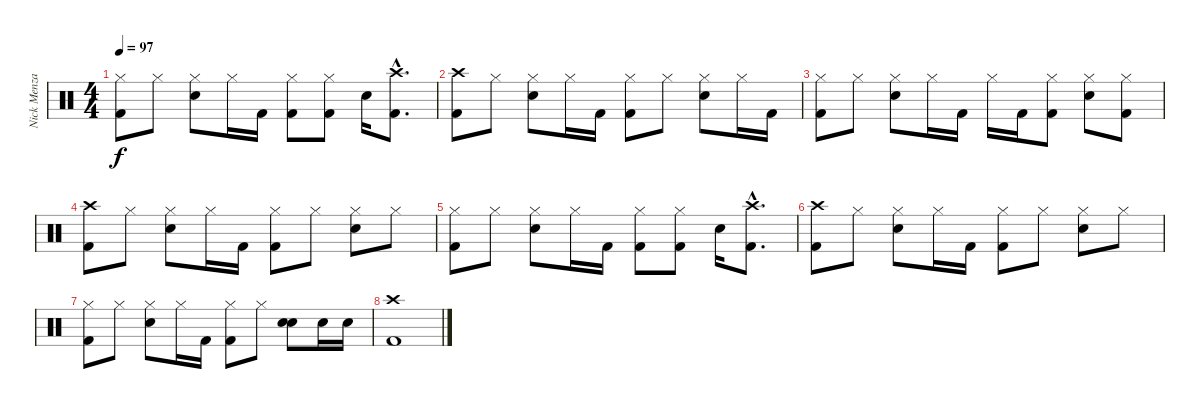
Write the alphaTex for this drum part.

\track ("Nick Menza" "Nick Menza") {instrument percussion}
\staff {score}
\articulation defaults
\ts (4 4)
\tempo 97
\clef neutral
\ks c
("Hi-Hat (closed)" "Kick (hit) 2").8{dy f} "Hi-Hat (closed)".8 ("Hi-Hat (closed)" "Electric Snare (hit)").8 "Hi-Hat (closed)".16 "Kick (hit) 2".16 ("Hi-Hat (closed)" "Kick (hit) 2").8 ("Hi-Hat (closed)" "Kick (hit) 2").8 "Electric Snare (hit)".16 ("Crash high (hit)"{hac} "Kick (hit) 2"{hac}).8{d} |
("Crash high (hit)" "Kick (hit) 2").8 "Hi-Hat (closed)".8 ("Hi-Hat (closed)" "Electric Snare (hit)").8 "Hi-Hat (closed)".16 "Kick (hit) 2".16 ("Hi-Hat (closed)" "Kick (hit) 2").8 "Hi-Hat (closed)".8 ("Hi-Hat (closed)" "Electric Snare (hit)").8 "Hi-Hat (closed)".16 "Kick (hit) 2".16 |
("Hi-Hat (closed)" "Kick (hit) 2").8 "Hi-Hat (closed)".8 ("Hi-Hat (closed)" "Electric Snare (hit)").8 "Hi-Hat (closed)".16 "Kick (hit) 2".16 "Hi-Hat (closed)".16 "Kick (hit) 2".16 ("Hi-Hat (closed)" "Kick (hit) 2").8 ("Hi-Hat (closed)" "Electric Snare (hit)").8 ("Hi-Hat (closed)" "Kick (hit) 2").8 |
("Crash high (hit)" "Kick (hit) 2").8 "Hi-Hat (closed)".8 ("Hi-Hat (closed)" "Electric Snare (hit)").8 "Hi-Hat (closed)".16 "Kick (hit) 2".16 ("Hi-Hat (closed)" "Kick (hit) 2").8 "Hi-Hat (closed)".8 ("Hi-Hat (closed)" "Electric Snare (hit)").8 "Hi-Hat (closed)".8 |
("Hi-Hat (closed)" "Kick (hit) 2").8 "Hi-Hat (closed)".8 ("Hi-Hat (closed)" "Electric Snare (hit)").8 "Hi-Hat (closed)".16 "Kick (hit) 2".16 ("Hi-Hat (closed)" "Kick (hit) 2").8 ("Hi-Hat (closed)" "Kick (hit) 2").8 "Electric Snare (hit)".16 ("Crash high (hit)"{hac} "Kick (hit) 2"{hac}).8{d} |
("Crash high (hit)" "Kick (hit) 2").8 "Hi-Hat (closed)".8 ("Hi-Hat (closed)" "Electric Snare (hit)").8 "Hi-Hat (closed)".16 "Kick (hit) 2".16 ("Hi-Hat (closed)" "Kick (hit) 2").8 "Hi-Hat (closed)".8 ("Hi-Hat (closed)" "Electric Snare (hit)").8 "Hi-Hat (closed)".8 |
("Hi-Hat (closed)" "Kick (hit) 2").8 "Hi-Hat (closed)".8 ("Hi-Hat (closed)" "Electric Snare (hit)").8 "Hi-Hat (closed)".16 "Kick (hit) 2".16 ("Hi-Hat (closed)" "Kick (hit) 2").8 "Hi-Hat (closed)".8 ("Electric Snare (hit)" "Electric Snare (hit)").8 "Electric Snare (hit)".16 "Electric Snare (hit)".16 |
("Crash high (hit)" "Kick (hit) 2").1
